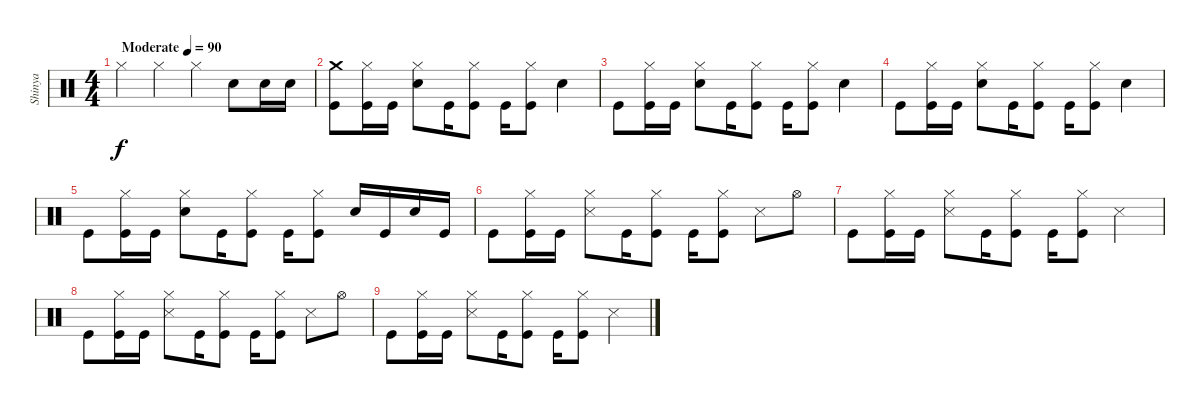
\track ("Shinya" "Shinya") {instrument percussion}
\staff {score}
\articulation defaults
\ts (4 4)
\tempo (90 "Moderate")
\clef neutral
\ks c "Hi-Hat (closed)".4{dy f} "Hi-Hat (closed)".4 "Hi-Hat (closed)".4 "Electric Snare (hit)".8 "Electric Snare (hit)".16 "Electric Snare (hit)".16
|
("Crash medium (hit)" "Kick (hit)").8 ("Hi-Hat (closed)" "Kick (hit)").16 "Kick (hit)".16 ("Hi-Hat (closed)" "Electric Snare (hit)").8 "Kick (hit)".16 ("Hi-Hat (closed)" "Kick (hit)").8 "Kick (hit)".16 ("Hi-Hat (closed)" "Kick (hit)").8 "Electric Snare (hit)".4 |
"Kick (hit)".8 ("Hi-Hat (closed)" "Kick (hit)").16 "Kick (hit)".16 ("Hi-Hat (closed)" "Electric Snare (hit)").8 "Kick (hit)".16 ("Hi-Hat (closed)" "Kick (hit)").8 "Kick (hit)".16 ("Hi-Hat (closed)" "Kick (hit)").8 "Electric Snare (hit)".4 |
"Kick (hit)".8 ("Hi-Hat (closed)" "Kick (hit)").16 "Kick (hit)".16 ("Hi-Hat (closed)" "Electric Snare (hit)").8 "Kick (hit)".16 ("Hi-Hat (closed)" "Kick (hit)").8 "Kick (hit)".16 ("Hi-Hat (closed)" "Kick (hit)").8 "Electric Snare (hit)".4 |
"Kick (hit)".8 ("Hi-Hat (closed)" "Kick (hit)").16 "Kick (hit)".16 ("Hi-Hat (closed)" "Electric Snare (hit)").8 "Kick (hit)".16 ("Hi-Hat (closed)" "Kick (hit)").8 "Kick (hit)".16 ("Hi-Hat (closed)" "Kick (hit)").8 "Electric Snare (hit)".16 "Kick (hit)".16 "Electric Snare (hit)".16 "Kick (hit)".16 |
"Kick (hit)".8 ("Hi-Hat (closed)" "Kick (hit)").16 "Kick (hit)".16 ("Hi-Hat (closed)" "Snare (side stick) 3").8 "Kick (hit)".16 ("Hi-Hat (closed)" "Kick (hit)").8 "Kick (hit)".16 ("Hi-Hat (closed)" "Kick (hit)").8 "Snare (side stick) 3".8 "Hi-Hat (open)".8 |
"Kick (hit)".8 ("Hi-Hat (closed)" "Kick (hit)").16 "Kick (hit)".16 ("Hi-Hat (closed)" "Snare (side stick) 3").8 "Kick (hit)".16 ("Hi-Hat (closed)" "Kick (hit)").8 "Kick (hit)".16 ("Hi-Hat (closed)" "Kick (hit)").8 "Snare (side stick) 3".4 |
"Kick (hit)".8 ("Hi-Hat (closed)" "Kick (hit)").16 "Kick (hit)".16 ("Hi-Hat (closed)" "Snare (side stick) 3").8 "Kick (hit)".16 ("Hi-Hat (closed)" "Kick (hit)").8 "Kick (hit)".16 ("Hi-Hat (closed)" "Kick (hit)").8 "Snare (side stick) 3".8 "Hi-Hat (open)".8 |
"Kick (hit)".8 ("Hi-Hat (closed)" "Kick (hit)").16 "Kick (hit)".16 ("Hi-Hat (closed)" "Snare (side stick) 3").8 "Kick (hit)".16 ("Hi-Hat (closed)" "Kick (hit)").8 "Kick (hit)".16 ("Hi-Hat (closed)" "Kick (hit)").8 "Snare (side stick) 3".4
